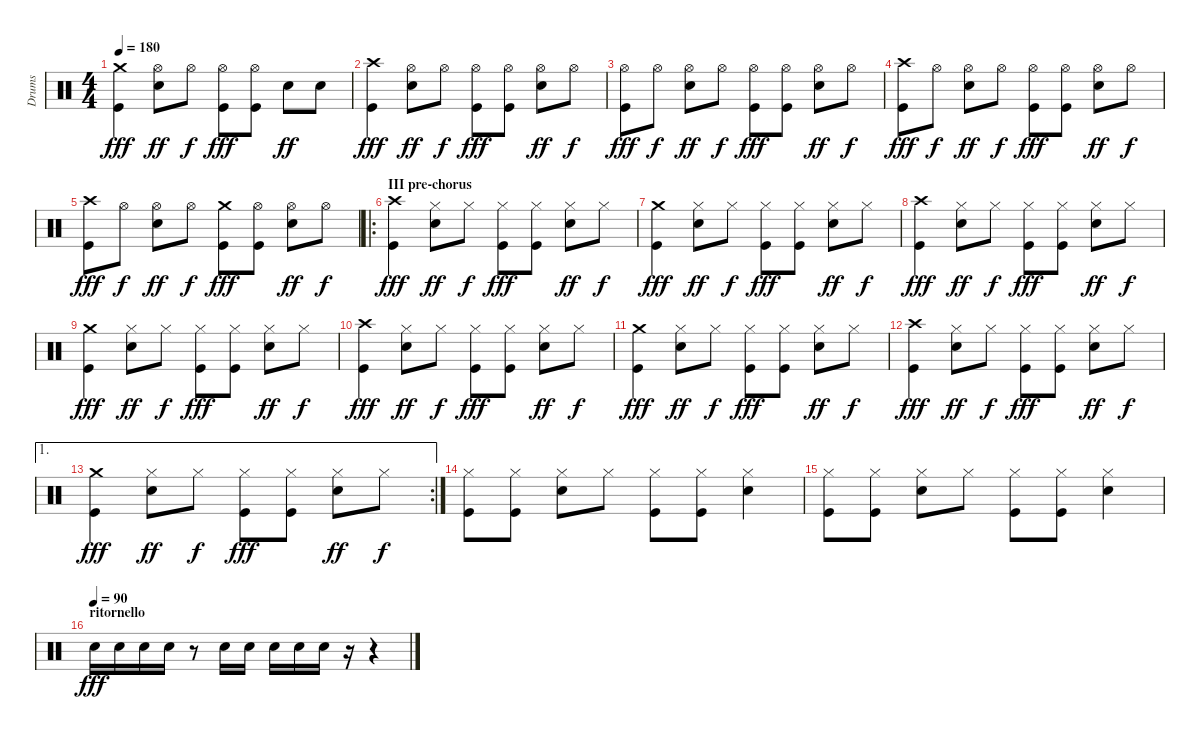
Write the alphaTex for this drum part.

\track ("Drums" "Drums") {instrument percussion}
\staff {score}
\articulation defaults
\ts (4 4)
\tempo 180
\clef neutral
\ks aminor
("Crash medium (hit)" "Kick (hit)").4{dy fff} ("Hi-Hat (open)" "Snare (hit) 2").8{dy ff} "Hi-Hat (open)".8{dy f} ("Hi-Hat (open)" "Kick (hit)").8{dy fff} ("Hi-Hat (open)" "Kick (hit)").8 "Snare (hit) 2".8{dy ff} "Snare (hit) 2".8 |
("Crash high (hit)" "Kick (hit)").4{dy fff} ("Hi-Hat (open)" "Snare (hit) 2").8{dy ff} "Hi-Hat (open)".8{dy f} ("Hi-Hat (open)" "Kick (hit)").8{dy fff} ("Hi-Hat (open)" "Kick (hit)").8 ("Hi-Hat (open)" "Snare (hit) 2").8{dy ff} "Hi-Hat (open)".8{dy f} |
("Hi-Hat (open)" "Kick (hit)").8{dy fff} "Hi-Hat (open)".8{dy f} ("Hi-Hat (open)" "Snare (hit) 2").8{dy ff} "Hi-Hat (open)".8{dy f} ("Hi-Hat (open)" "Kick (hit)").8{dy fff} ("Hi-Hat (open)" "Kick (hit)").8 ("Hi-Hat (open)" "Snare (hit) 2").8{dy ff} "Hi-Hat (open)".8{dy f} |
("Crash high (hit)" "Kick (hit)").8{dy fff} "Hi-Hat (open)".8{dy f} ("Hi-Hat (open)" "Snare (hit) 2").8{dy ff} "Hi-Hat (open)".8{dy f} ("Hi-Hat (open)" "Kick (hit)").8{dy fff} ("Hi-Hat (open)" "Kick (hit)").8 ("Hi-Hat (open)" "Snare (hit) 2").8{dy ff} "Hi-Hat (open)".8{dy f} |
("Crash high (hit)" "Kick (hit)").8{dy fff} "Hi-Hat (open)".8{dy f} ("Hi-Hat (open)" "Snare (hit) 2").8{dy ff} "Hi-Hat (open)".8{dy f} ("Crash medium (hit)" "Kick (hit)").8{dy fff} ("Hi-Hat (open)" "Kick (hit)").8 ("Hi-Hat (open)" "Snare (hit) 2").8{dy ff} "Hi-Hat (open)".8{dy f} |
\ro
\section ("" "III pre-chorus")
("Crash high (hit)" "Kick (hit)").4{dy fff} ("Hi-Hat (closed)" "Snare (hit) 2").8{dy ff} "Hi-Hat (closed)".8{dy f} ("Hi-Hat (closed)" "Kick (hit)").8{dy fff} ("Hi-Hat (closed)" "Kick (hit)").8 ("Hi-Hat (closed)" "Snare (hit) 2").8{dy ff} "Hi-Hat (closed)".8{dy f} |
("Crash medium (hit)" "Kick (hit)").4{dy fff} ("Hi-Hat (closed)" "Snare (hit) 2").8{dy ff} "Hi-Hat (closed)".8{dy f} ("Hi-Hat (closed)" "Kick (hit)").8{dy fff} ("Hi-Hat (closed)" "Kick (hit)").8 ("Hi-Hat (closed)" "Snare (hit) 2").8{dy ff} "Hi-Hat (closed)".8{dy f} |
("Crash high (hit)" "Kick (hit)").4{dy fff} ("Hi-Hat (closed)" "Snare (hit) 2").8{dy ff} "Hi-Hat (closed)".8{dy f} ("Hi-Hat (closed)" "Kick (hit)").8{dy fff} ("Hi-Hat (closed)" "Kick (hit)").8 ("Hi-Hat (closed)" "Snare (hit) 2").8{dy ff} "Hi-Hat (closed)".8{dy f} |
("Crash medium (hit)" "Kick (hit)").4{dy fff} ("Hi-Hat (closed)" "Snare (hit) 2").8{dy ff} "Hi-Hat (closed)".8{dy f} ("Hi-Hat (closed)" "Kick (hit)").8{dy fff} ("Hi-Hat (closed)" "Kick (hit)").8 ("Hi-Hat (closed)" "Snare (hit) 2").8{dy ff} "Hi-Hat (closed)".8{dy f} |
("Crash high (hit)" "Kick (hit)").4{dy fff} ("Hi-Hat (closed)" "Snare (hit) 2").8{dy ff} "Hi-Hat (closed)".8{dy f} ("Hi-Hat (closed)" "Kick (hit)").8{dy fff} ("Hi-Hat (closed)" "Kick (hit)").8 ("Hi-Hat (closed)" "Snare (hit) 2").8{dy ff} "Hi-Hat (closed)".8{dy f} |
("Crash medium (hit)" "Kick (hit)").4{dy fff} ("Hi-Hat (closed)" "Snare (hit) 2").8{dy ff} "Hi-Hat (closed)".8{dy f} ("Hi-Hat (closed)" "Kick (hit)").8{dy fff} ("Hi-Hat (closed)" "Kick (hit)").8 ("Hi-Hat (closed)" "Snare (hit) 2").8{dy ff} "Hi-Hat (closed)".8{dy f} |
("Crash high (hit)" "Kick (hit)").4{dy fff} ("Hi-Hat (closed)" "Snare (hit) 2").8{dy ff} "Hi-Hat (closed)".8{dy f} ("Hi-Hat (closed)" "Kick (hit)").8{dy fff} ("Hi-Hat (closed)" "Kick (hit)").8 ("Hi-Hat (closed)" "Snare (hit) 2").8{dy ff} "Hi-Hat (closed)".8{dy f} |
\ae 1
\rc 2
("Crash medium (hit)" "Kick (hit)").4{dy fff} ("Hi-Hat (closed)" "Snare (hit) 2").8{dy ff} "Hi-Hat (closed)".8{dy f} ("Hi-Hat (closed)" "Kick (hit)").8{dy fff} ("Hi-Hat (closed)" "Kick (hit)").8 ("Hi-Hat (closed)" "Snare (hit) 2").8{dy ff} "Hi-Hat (closed)".8{dy f} |
("Hi-Hat (closed)" "Kick (hit)").8 ("Hi-Hat (closed)" "Kick (hit)").8 ("Hi-Hat (closed)" "Snare (hit) 2").8 "Hi-Hat (closed)".8 ("Hi-Hat (closed)" "Kick (hit)").8 ("Hi-Hat (closed)" "Kick (hit)").8 ("Hi-Hat (closed)" "Snare (hit) 2").4 |
("Hi-Hat (closed)" "Kick (hit)").8 ("Hi-Hat (closed)" "Kick (hit)").8 ("Hi-Hat (closed)" "Snare (hit) 2").8 "Hi-Hat (closed)".8 ("Hi-Hat (closed)" "Kick (hit)").8 ("Hi-Hat (closed)" "Kick (hit)").8 ("Hi-Hat (closed)" "Snare (hit) 2").4 |
\section ("" "ritornello")
\tempo (90)
"Snare (hit) 2".16{dy fff} "Snare (hit) 2".16 "Snare (hit) 2".16 "Snare (hit) 2".16 r.8 "Snare (hit) 2".16 "Snare (hit) 2".16 "Snare (hit) 2".16 "Snare (hit) 2".16 "Snare (hit) 2".16 r.16 r.4
